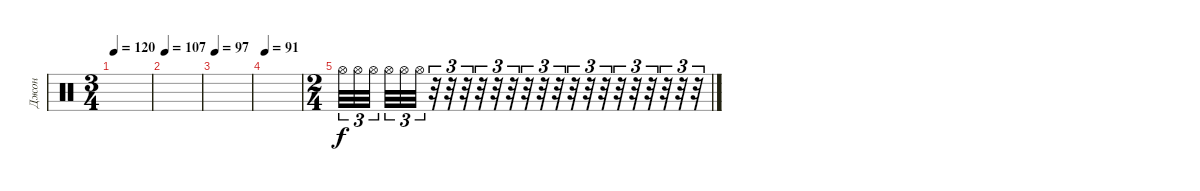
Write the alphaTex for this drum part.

\track ("Джон" "Джон") {instrument percussion}
\staff {score}
\articulation defaults
\ts (3 4)
\tempo 120
\clef neutral
\ks c
|
\tempo 107
|
\tempo 97
|
\tempo 91
|
\ts (2 4)
"Hi-Hat (open)".32{tu (3 2) dy f} "Hi-Hat (open)".32{tu (3 2)} "Hi-Hat (open)".32{tu (3 2) beam splitsecondary} "Hi-Hat (open)".32{tu (3 2)} "Hi-Hat (open)".32{tu (3 2)} "Hi-Hat (open)".32{tu (3 2)} r.32{tu (3 2)} r.32{tu (3 2)} r.32{tu (3 2)} r.32{tu (3 2)} r.32{tu (3 2)} r.32{tu (3 2)} r.32{tu (3 2)} r.32{tu (3 2)} r.32{tu (3 2)} r.32{tu (3 2)} r.32{tu (3 2)} r.32{tu (3 2)} r.32{tu (3 2)} r.32{tu (3 2)} r.32{tu (3 2)} r.32{tu (3 2)} r.32{tu (3 2)} r.32{tu (3 2)}
